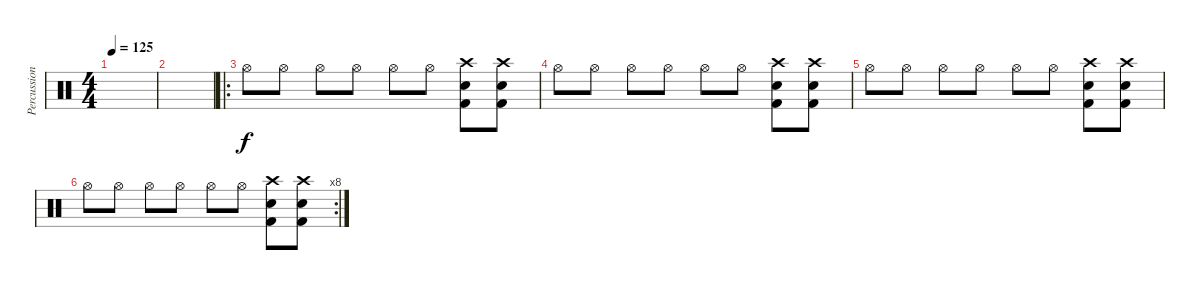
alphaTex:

\track ("Percussion" "Percussion") {instrument percussion}
\staff {score}
\articulation defaults
\ts (4 4)
\tempo 125
\clef neutral
\ks c
|
|
\ro "Hi-Hat (open)".8 "Hi-Hat (open)".8 "Hi-Hat (open)".8 "Hi-Hat (open)".8 "Hi-Hat (open)".8 "Hi-Hat (open)".8
("Crash high (hit)" "Snare (hit) 2" "Kick (hit) 2").8 ("Crash high (hit)" "Snare (hit) 2" "Kick (hit) 2").8 |
"Hi-Hat (open)".8 "Hi-Hat (open)".8 "Hi-Hat (open)".8 "Hi-Hat (open)".8 "Hi-Hat (open)".8 "Hi-Hat (open)".8 ("Crash high (hit)" "Snare (hit) 2" "Kick (hit) 2").8 ("Crash high (hit)" "Snare (hit) 2" "Kick (hit) 2").8 |
"Hi-Hat (open)".8 "Hi-Hat (open)".8 "Hi-Hat (open)".8 "Hi-Hat (open)".8 "Hi-Hat (open)".8 "Hi-Hat (open)".8 ("Crash high (hit)" "Snare (hit) 2" "Kick (hit) 2").8 ("Crash high (hit)" "Snare (hit) 2" "Kick (hit) 2").8 |
\rc 8 "Hi-Hat (open)".8 "Hi-Hat (open)".8 "Hi-Hat (open)".8 "Hi-Hat (open)".8 "Hi-Hat (open)".8 "Hi-Hat (open)".8
("Crash high (hit)" "Snare (hit) 2" "Kick (hit) 2").8 ("Crash high (hit)" "Snare (hit) 2" "Kick (hit) 2").8
